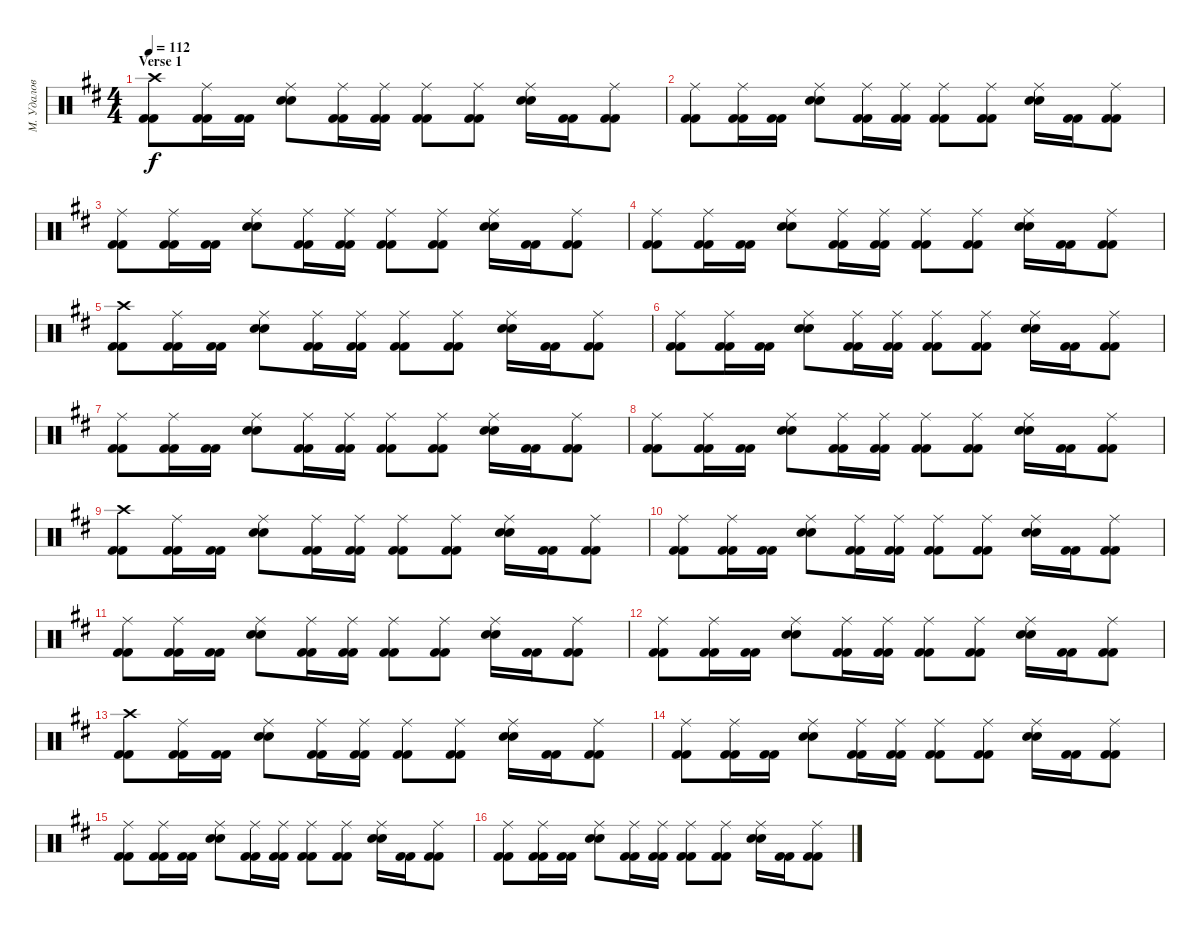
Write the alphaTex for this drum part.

\track ("М. Удалов" "М. Удалов") {instrument percussion}
\staff {score}
\articulation defaults
\ts (4 4)
\section ("" "Verse 1")
\tempo 112
\clef neutral
\ks d
("Crash high (hit)" "Kick (hit) 2" "Kick (hit) 2").8{dy f} ("Ride (middle)" "Kick (hit) 2" "Kick (hit) 2").16 ("Kick (hit) 2" "Kick (hit) 2").16 ("Ride (middle)" "Electric Snare (hit)" "Electric Snare (hit)").8 ("Ride (middle)" "Kick (hit) 2" "Kick (hit) 2").16 ("Ride (middle)" "Kick (hit) 2" "Kick (hit) 2").16 ("Ride (middle)" "Kick (hit) 2" "Kick (hit) 2").8 ("Ride (middle)" "Kick (hit) 2" "Kick (hit) 2").8 ("Ride (middle)" "Electric Snare (hit)" "Electric Snare (hit)").16 ("Kick (hit) 2" "Kick (hit) 2").16 ("Ride (middle)" "Kick (hit) 2" "Kick (hit) 2").8 |
("Ride (middle)" "Kick (hit) 2" "Kick (hit) 2").8 ("Ride (middle)" "Kick (hit) 2" "Kick (hit) 2").16 ("Kick (hit) 2" "Kick (hit) 2").16 ("Ride (middle)" "Electric Snare (hit)" "Electric Snare (hit)").8 ("Ride (middle)" "Kick (hit) 2" "Kick (hit) 2").16 ("Ride (middle)" "Kick (hit) 2" "Kick (hit) 2").16 ("Ride (middle)" "Kick (hit) 2" "Kick (hit) 2").8 ("Ride (middle)" "Kick (hit) 2" "Kick (hit) 2").8 ("Ride (middle)" "Electric Snare (hit)" "Electric Snare (hit)").16 ("Kick (hit) 2" "Kick (hit) 2").16 ("Ride (middle)" "Kick (hit) 2" "Kick (hit) 2").8 |
("Ride (middle)" "Kick (hit) 2" "Kick (hit) 2").8 ("Ride (middle)" "Kick (hit) 2" "Kick (hit) 2").16 ("Kick (hit) 2" "Kick (hit) 2").16 ("Ride (middle)" "Electric Snare (hit)" "Electric Snare (hit)").8 ("Ride (middle)" "Kick (hit) 2" "Kick (hit) 2").16 ("Ride (middle)" "Kick (hit) 2" "Kick (hit) 2").16 ("Ride (middle)" "Kick (hit) 2" "Kick (hit) 2").8 ("Ride (middle)" "Kick (hit) 2" "Kick (hit) 2").8 ("Ride (middle)" "Electric Snare (hit)" "Electric Snare (hit)").16 ("Kick (hit) 2" "Kick (hit) 2").16 ("Ride (middle)" "Kick (hit) 2" "Kick (hit) 2").8 |
("Ride (middle)" "Kick (hit) 2" "Kick (hit) 2").8 ("Ride (middle)" "Kick (hit) 2" "Kick (hit) 2").16 ("Kick (hit) 2" "Kick (hit) 2").16 ("Ride (middle)" "Electric Snare (hit)" "Electric Snare (hit)").8 ("Ride (middle)" "Kick (hit) 2" "Kick (hit) 2").16 ("Ride (middle)" "Kick (hit) 2" "Kick (hit) 2").16 ("Ride (middle)" "Kick (hit) 2" "Kick (hit) 2").8 ("Ride (middle)" "Kick (hit) 2" "Kick (hit) 2").8 ("Ride (middle)" "Electric Snare (hit)" "Electric Snare (hit)").16 ("Kick (hit) 2" "Kick (hit) 2").16 ("Ride (middle)" "Kick (hit) 2" "Kick (hit) 2").8 |
("Crash high (hit)" "Kick (hit) 2" "Kick (hit) 2").8 ("Ride (middle)" "Kick (hit) 2" "Kick (hit) 2").16 ("Kick (hit) 2" "Kick (hit) 2").16 ("Ride (middle)" "Electric Snare (hit)" "Electric Snare (hit)").8 ("Ride (middle)" "Kick (hit) 2" "Kick (hit) 2").16 ("Ride (middle)" "Kick (hit) 2" "Kick (hit) 2").16 ("Ride (middle)" "Kick (hit) 2" "Kick (hit) 2").8 ("Ride (middle)" "Kick (hit) 2" "Kick (hit) 2").8 ("Ride (middle)" "Electric Snare (hit)" "Electric Snare (hit)").16 ("Kick (hit) 2" "Kick (hit) 2").16 ("Ride (middle)" "Kick (hit) 2" "Kick (hit) 2").8 |
("Ride (middle)" "Kick (hit) 2" "Kick (hit) 2").8 ("Ride (middle)" "Kick (hit) 2" "Kick (hit) 2").16 ("Kick (hit) 2" "Kick (hit) 2").16 ("Ride (middle)" "Electric Snare (hit)" "Electric Snare (hit)").8 ("Ride (middle)" "Kick (hit) 2" "Kick (hit) 2").16 ("Ride (middle)" "Kick (hit) 2" "Kick (hit) 2").16 ("Ride (middle)" "Kick (hit) 2" "Kick (hit) 2").8 ("Ride (middle)" "Kick (hit) 2" "Kick (hit) 2").8 ("Ride (middle)" "Electric Snare (hit)" "Electric Snare (hit)").16 ("Kick (hit) 2" "Kick (hit) 2").16 ("Ride (middle)" "Kick (hit) 2" "Kick (hit) 2").8 |
("Ride (middle)" "Kick (hit) 2" "Kick (hit) 2").8 ("Ride (middle)" "Kick (hit) 2" "Kick (hit) 2").16 ("Kick (hit) 2" "Kick (hit) 2").16 ("Ride (middle)" "Electric Snare (hit)" "Electric Snare (hit)").8 ("Ride (middle)" "Kick (hit) 2" "Kick (hit) 2").16 ("Ride (middle)" "Kick (hit) 2" "Kick (hit) 2").16 ("Ride (middle)" "Kick (hit) 2" "Kick (hit) 2").8 ("Ride (middle)" "Kick (hit) 2" "Kick (hit) 2").8 ("Ride (middle)" "Electric Snare (hit)" "Electric Snare (hit)").16 ("Kick (hit) 2" "Kick (hit) 2").16 ("Ride (middle)" "Kick (hit) 2" "Kick (hit) 2").8 |
("Ride (middle)" "Kick (hit) 2" "Kick (hit) 2").8 ("Ride (middle)" "Kick (hit) 2" "Kick (hit) 2").16 ("Kick (hit) 2" "Kick (hit) 2").16 ("Ride (middle)" "Electric Snare (hit)" "Electric Snare (hit)").8 ("Ride (middle)" "Kick (hit) 2" "Kick (hit) 2").16 ("Ride (middle)" "Kick (hit) 2" "Kick (hit) 2").16 ("Ride (middle)" "Kick (hit) 2" "Kick (hit) 2").8 ("Ride (middle)" "Kick (hit) 2" "Kick (hit) 2").8 ("Ride (middle)" "Electric Snare (hit)" "Electric Snare (hit)").16 ("Kick (hit) 2" "Kick (hit) 2").16 ("Ride (middle)" "Kick (hit) 2" "Kick (hit) 2").8 |
("Crash high (hit)" "Kick (hit) 2" "Kick (hit) 2").8 ("Ride (middle)" "Kick (hit) 2" "Kick (hit) 2").16 ("Kick (hit) 2" "Kick (hit) 2").16 ("Ride (middle)" "Electric Snare (hit)" "Electric Snare (hit)").8 ("Ride (middle)" "Kick (hit) 2" "Kick (hit) 2").16 ("Ride (middle)" "Kick (hit) 2" "Kick (hit) 2").16 ("Ride (middle)" "Kick (hit) 2" "Kick (hit) 2").8 ("Ride (middle)" "Kick (hit) 2" "Kick (hit) 2").8 ("Ride (middle)" "Electric Snare (hit)" "Electric Snare (hit)").16 ("Kick (hit) 2" "Kick (hit) 2").16 ("Ride (middle)" "Kick (hit) 2" "Kick (hit) 2").8 |
("Ride (middle)" "Kick (hit) 2" "Kick (hit) 2").8 ("Ride (middle)" "Kick (hit) 2" "Kick (hit) 2").16 ("Kick (hit) 2" "Kick (hit) 2").16 ("Ride (middle)" "Electric Snare (hit)" "Electric Snare (hit)").8 ("Ride (middle)" "Kick (hit) 2" "Kick (hit) 2").16 ("Ride (middle)" "Kick (hit) 2" "Kick (hit) 2").16 ("Ride (middle)" "Kick (hit) 2" "Kick (hit) 2").8 ("Ride (middle)" "Kick (hit) 2" "Kick (hit) 2").8 ("Ride (middle)" "Electric Snare (hit)" "Electric Snare (hit)").16 ("Kick (hit) 2" "Kick (hit) 2").16 ("Ride (middle)" "Kick (hit) 2" "Kick (hit) 2").8 |
("Ride (middle)" "Kick (hit) 2" "Kick (hit) 2").8 ("Ride (middle)" "Kick (hit) 2" "Kick (hit) 2").16 ("Kick (hit) 2" "Kick (hit) 2").16 ("Ride (middle)" "Electric Snare (hit)" "Electric Snare (hit)").8 ("Ride (middle)" "Kick (hit) 2" "Kick (hit) 2").16 ("Ride (middle)" "Kick (hit) 2" "Kick (hit) 2").16 ("Ride (middle)" "Kick (hit) 2" "Kick (hit) 2").8 ("Ride (middle)" "Kick (hit) 2" "Kick (hit) 2").8 ("Ride (middle)" "Electric Snare (hit)" "Electric Snare (hit)").16 ("Kick (hit) 2" "Kick (hit) 2").16 ("Ride (middle)" "Kick (hit) 2" "Kick (hit) 2").8 |
("Ride (middle)" "Kick (hit) 2" "Kick (hit) 2").8 ("Ride (middle)" "Kick (hit) 2" "Kick (hit) 2").16 ("Kick (hit) 2" "Kick (hit) 2").16 ("Ride (middle)" "Electric Snare (hit)" "Electric Snare (hit)").8 ("Ride (middle)" "Kick (hit) 2" "Kick (hit) 2").16 ("Ride (middle)" "Kick (hit) 2" "Kick (hit) 2").16 ("Ride (middle)" "Kick (hit) 2" "Kick (hit) 2").8 ("Ride (middle)" "Kick (hit) 2" "Kick (hit) 2").8 ("Ride (middle)" "Electric Snare (hit)" "Electric Snare (hit)").16 ("Kick (hit) 2" "Kick (hit) 2").16 ("Ride (middle)" "Kick (hit) 2" "Kick (hit) 2").8 |
("Crash high (hit)" "Kick (hit) 2" "Kick (hit) 2").8 ("Ride (middle)" "Kick (hit) 2" "Kick (hit) 2").16 ("Kick (hit) 2" "Kick (hit) 2").16 ("Ride (middle)" "Electric Snare (hit)" "Electric Snare (hit)").8 ("Ride (middle)" "Kick (hit) 2" "Kick (hit) 2").16 ("Ride (middle)" "Kick (hit) 2" "Kick (hit) 2").16 ("Ride (middle)" "Kick (hit) 2" "Kick (hit) 2").8 ("Ride (middle)" "Kick (hit) 2" "Kick (hit) 2").8 ("Ride (middle)" "Electric Snare (hit)" "Electric Snare (hit)").16 ("Kick (hit) 2" "Kick (hit) 2").16 ("Ride (middle)" "Kick (hit) 2" "Kick (hit) 2").8 |
("Ride (middle)" "Kick (hit) 2" "Kick (hit) 2").8 ("Ride (middle)" "Kick (hit) 2" "Kick (hit) 2").16 ("Kick (hit) 2" "Kick (hit) 2").16 ("Ride (middle)" "Electric Snare (hit)" "Electric Snare (hit)").8 ("Ride (middle)" "Kick (hit) 2" "Kick (hit) 2").16 ("Ride (middle)" "Kick (hit) 2" "Kick (hit) 2").16 ("Ride (middle)" "Kick (hit) 2" "Kick (hit) 2").8 ("Ride (middle)" "Kick (hit) 2" "Kick (hit) 2").8 ("Ride (middle)" "Electric Snare (hit)" "Electric Snare (hit)").16 ("Kick (hit) 2" "Kick (hit) 2").16 ("Ride (middle)" "Kick (hit) 2" "Kick (hit) 2").8 |
("Ride (middle)" "Kick (hit) 2" "Kick (hit) 2").8 ("Ride (middle)" "Kick (hit) 2" "Kick (hit) 2").16 ("Kick (hit) 2" "Kick (hit) 2").16 ("Ride (middle)" "Electric Snare (hit)" "Electric Snare (hit)").8 ("Ride (middle)" "Kick (hit) 2" "Kick (hit) 2").16 ("Ride (middle)" "Kick (hit) 2" "Kick (hit) 2").16 ("Ride (middle)" "Kick (hit) 2" "Kick (hit) 2").8 ("Ride (middle)" "Kick (hit) 2" "Kick (hit) 2").8 ("Ride (middle)" "Electric Snare (hit)" "Electric Snare (hit)").16 ("Kick (hit) 2" "Kick (hit) 2").16 ("Ride (middle)" "Kick (hit) 2" "Kick (hit) 2").8 |
("Ride (middle)" "Kick (hit) 2" "Kick (hit) 2").8 ("Ride (middle)" "Kick (hit) 2" "Kick (hit) 2").16 ("Kick (hit) 2" "Kick (hit) 2").16 ("Ride (middle)" "Electric Snare (hit)" "Electric Snare (hit)").8 ("Ride (middle)" "Kick (hit) 2" "Kick (hit) 2").16 ("Ride (middle)" "Kick (hit) 2" "Kick (hit) 2").16 ("Ride (middle)" "Kick (hit) 2" "Kick (hit) 2").8 ("Ride (middle)" "Kick (hit) 2" "Kick (hit) 2").8 ("Ride (middle)" "Electric Snare (hit)" "Electric Snare (hit)").16 ("Kick (hit) 2" "Kick (hit) 2").16 ("Ride (middle)" "Kick (hit) 2" "Kick (hit) 2").8
